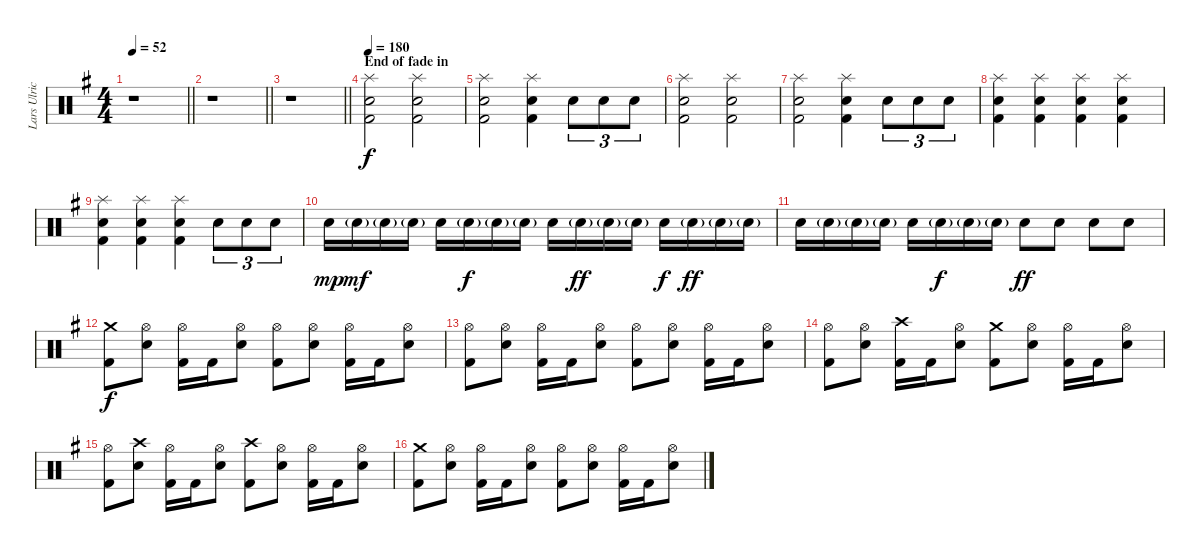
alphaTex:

\track ("Lars Ulrich" "Lars Ulric") {instrument percussion}
\staff {score}
\articulation defaults
\ts (4 4)
\tempo 52
\clef neutral
\barLineRight lightlight
\ks eminor
r.1{dy f} |
\barLineRight lightlight
r.1 |
\barLineRight lightlight
r.1 |
\section ("" "End of fade in")
\tempo 180
("Splash (hit)" "Snare (hit) 2" "Kick (hit) 2").2 ("Splash (hit)" "Snare (hit) 2" "Kick (hit) 2").2 |
("Splash (hit)" "Snare (hit) 2" "Kick (hit) 2").2 ("Splash (hit)" "Snare (hit) 2" "Kick (hit) 2").4 "Snare (hit) 2".8{tu (3 2)} "Snare (hit) 2".8{tu (3 2)} "Snare (hit) 2".8{tu (3 2)} |
("Splash (hit)" "Snare (hit) 2" "Kick (hit) 2").2 ("Splash (hit)" "Snare (hit) 2" "Kick (hit) 2").2 |
("Splash (hit)" "Snare (hit) 2" "Kick (hit) 2").2 ("Splash (hit)" "Snare (hit) 2" "Kick (hit) 2").4 "Snare (hit) 2".8{tu (3 2)} "Snare (hit) 2".8{tu (3 2)} "Snare (hit) 2".8{tu (3 2)} |
("Splash (hit)" "Snare (hit) 2" "Kick (hit) 2").4 ("Splash (hit)" "Snare (hit) 2" "Kick (hit) 2").4 ("Splash (hit)" "Snare (hit) 2" "Kick (hit) 2").4 ("Splash (hit)" "Snare (hit) 2" "Kick (hit) 2").4 |
("Splash (hit)" "Snare (hit) 2" "Kick (hit) 2").4 ("Splash (hit)" "Snare (hit) 2" "Kick (hit) 2").4 ("Splash (hit)" "Snare (hit) 2" "Kick (hit) 2").4 "Snare (hit) 2".8{tu (3 2)} "Snare (hit) 2".8{tu (3 2)} "Snare (hit) 2".8{tu (3 2)} |
"Snare (hit) 2".16{dy mp} "Snare (hit) 2"{g}.16{dy mf} "Snare (hit) 2"{g}.16 "Snare (hit) 2"{g}.16 "Snare (hit) 2".16 "Snare (hit) 2"{g}.16{dy f} "Snare (hit) 2"{g}.16 "Snare (hit) 2"{g}.16 "Snare (hit) 2".16 "Snare (hit) 2"{g}.16{dy ff} "Snare (hit) 2"{g}.16 "Snare (hit) 2"{g}.16 "Snare (hit) 2".16{dy f} "Snare (hit) 2"{g}.16{dy ff} "Snare (hit) 2"{g}.16 "Snare (hit) 2"{g}.16 |
"Snare (hit) 2".16 "Snare (hit) 2"{g}.16 "Snare (hit) 2"{g}.16 "Snare (hit) 2"{g}.16 "Snare (hit) 2".16 "Snare (hit) 2"{g}.16{dy f} "Snare (hit) 2"{g}.16 "Snare (hit) 2"{g}.16 "Snare (hit) 2".8{dy ff} "Snare (hit) 2".8 "Snare (hit) 2".8 "Snare (hit) 2".8 |
("Crash medium (hit)" "Kick (hit) 2").8{dy f} ("Hi-Hat (open)" "Snare (hit) 2").8 ("Hi-Hat (open)" "Kick (hit) 2").16 "Kick (hit) 2".16 ("Hi-Hat (open)" "Snare (hit) 2").8 ("Hi-Hat (open)" "Kick (hit) 2").8 ("Hi-Hat (open)" "Snare (hit) 2").8 ("Hi-Hat (open)" "Kick (hit) 2").16 "Kick (hit) 2".16 ("Hi-Hat (open)" "Snare (hit) 2").8 |
("Hi-Hat (open)" "Kick (hit) 2").8 ("Hi-Hat (open)" "Snare (hit) 2").8 ("Hi-Hat (open)" "Kick (hit) 2").16 "Kick (hit) 2".16 ("Hi-Hat (open)" "Snare (hit) 2").8 ("Hi-Hat (open)" "Kick (hit) 2").8 ("Hi-Hat (open)" "Snare (hit) 2").8 ("Hi-Hat (open)" "Kick (hit) 2").16 "Kick (hit) 2".16 ("Hi-Hat (open)" "Snare (hit) 2").8 |
("Hi-Hat (open)" "Kick (hit) 2").8 ("Hi-Hat (open)" "Snare (hit) 2").8 ("Crash high (hit)" "Kick (hit) 2").16 "Kick (hit) 2".16 ("Hi-Hat (open)" "Snare (hit) 2").8 ("Crash medium (hit)" "Kick (hit) 2").8 ("Hi-Hat (open)" "Snare (hit) 2").8 ("Hi-Hat (open)" "Kick (hit) 2").16 "Kick (hit) 2".16 ("Hi-Hat (open)" "Snare (hit) 2").8 |
("Hi-Hat (open)" "Kick (hit) 2").8 ("Crash high (hit)" "Snare (hit) 2").8 ("Hi-Hat (open)" "Kick (hit) 2").16 "Kick (hit) 2".16 ("Hi-Hat (open)" "Snare (hit) 2").8 ("Crash high (hit)" "Kick (hit) 2").8 ("Hi-Hat (open)" "Snare (hit) 2").8 ("Hi-Hat (open)" "Kick (hit) 2").16 "Kick (hit) 2".16 ("Hi-Hat (open)" "Snare (hit) 2").8 |
("Crash medium (hit)" "Kick (hit) 2").8 ("Hi-Hat (open)" "Snare (hit) 2").8 ("Hi-Hat (open)" "Kick (hit) 2").16 "Kick (hit) 2".16 ("Hi-Hat (open)" "Snare (hit) 2").8 ("Hi-Hat (open)" "Kick (hit) 2").8 ("Hi-Hat (open)" "Snare (hit) 2").8 ("Hi-Hat (open)" "Kick (hit) 2").16 "Kick (hit) 2".16 ("Hi-Hat (open)" "Snare (hit) 2").8
